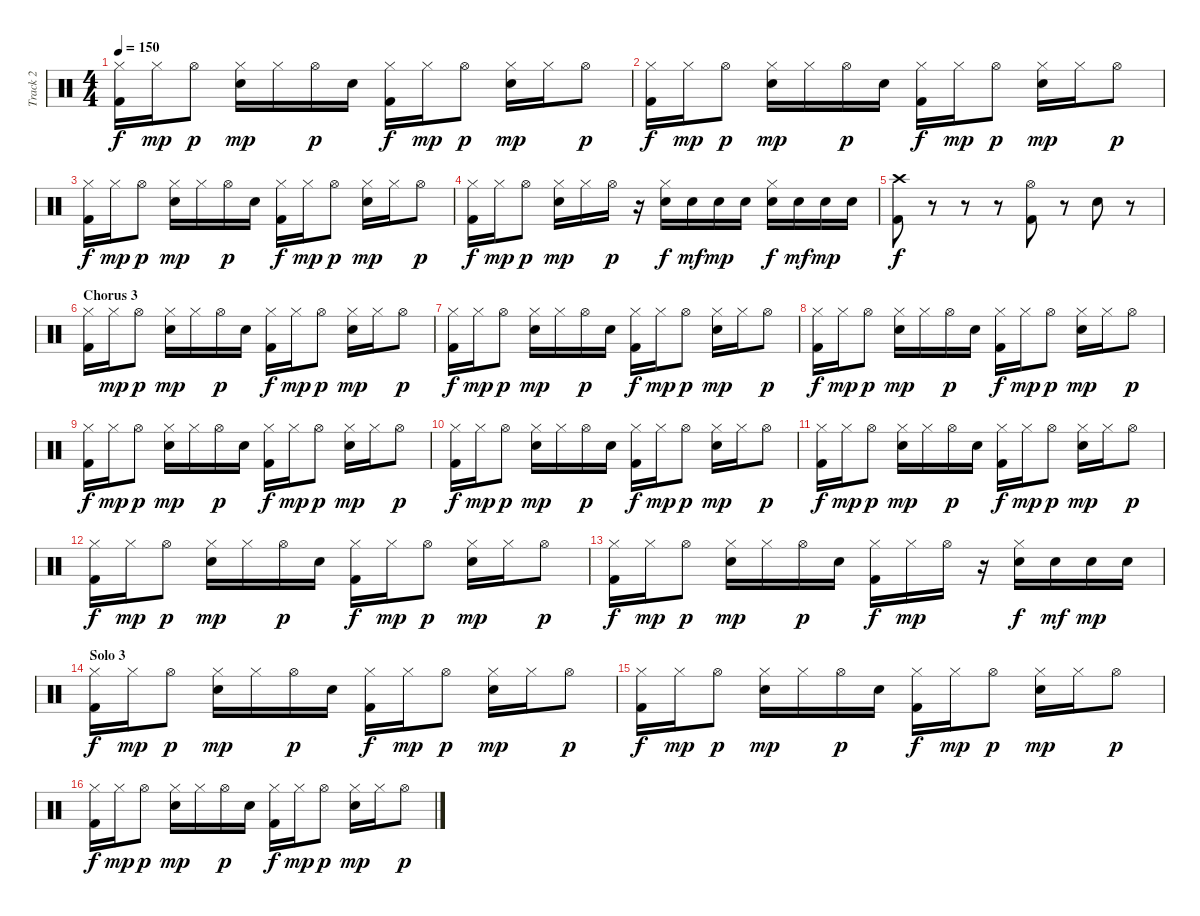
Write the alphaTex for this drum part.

\track ("Track 2" "Track 2") {instrument percussion}
\staff {score}
\articulation defaults
\ts (4 4)
\tempo 150
\clef neutral
\ks c
("Hi-Hat (closed)" "Kick (hit) 2").16{dy f} "Hi-Hat (closed)".16{dy mp} "Hi-Hat (open)".8{dy p} ("Hi-Hat (closed)" "Electric Snare (hit)").16{dy mp} "Hi-Hat (closed)".16 "Hi-Hat (open)".16{dy p} "Electric Snare (hit)".16 ("Hi-Hat (closed)" "Kick (hit) 2").16{dy f} "Hi-Hat (closed)".16{dy mp} "Hi-Hat (open)".8{dy p} ("Hi-Hat (closed)" "Electric Snare (hit)").16{dy mp} "Hi-Hat (closed)".16 "Hi-Hat (open)".8{dy p} |
("Hi-Hat (closed)" "Kick (hit) 2").16{dy f} "Hi-Hat (closed)".16{dy mp} "Hi-Hat (open)".8{dy p} ("Hi-Hat (closed)" "Electric Snare (hit)").16{dy mp} "Hi-Hat (closed)".16 "Hi-Hat (open)".16{dy p} "Electric Snare (hit)".16 ("Hi-Hat (closed)" "Kick (hit) 2").16{dy f} "Hi-Hat (closed)".16{dy mp} "Hi-Hat (open)".8{dy p} ("Hi-Hat (closed)" "Electric Snare (hit)").16{dy mp} "Hi-Hat (closed)".16 "Hi-Hat (open)".8{dy p} |
("Hi-Hat (closed)" "Kick (hit) 2").16{dy f} "Hi-Hat (closed)".16{dy mp} "Hi-Hat (open)".8{dy p} ("Hi-Hat (closed)" "Electric Snare (hit)").16{dy mp} "Hi-Hat (closed)".16 "Hi-Hat (open)".16{dy p} "Electric Snare (hit)".16 ("Hi-Hat (closed)" "Kick (hit) 2").16{dy f} "Hi-Hat (closed)".16{dy mp} "Hi-Hat (open)".8{dy p} ("Hi-Hat (closed)" "Electric Snare (hit)").16{dy mp} "Hi-Hat (closed)".16 "Hi-Hat (open)".8{dy p} |
("Hi-Hat (closed)" "Kick (hit) 2").16{dy f} "Hi-Hat (closed)".16{dy mp} "Hi-Hat (open)".8{dy p} ("Hi-Hat (closed)" "Electric Snare (hit)").16{dy mp} "Hi-Hat (closed)".16 "Hi-Hat (open)".16{dy p} r.16 ("Hi-Hat (closed)" "Electric Snare (hit)").16{dy f} "Electric Snare (hit)".16{dy mf} "Electric Snare (hit)".16{dy mp} "Electric Snare (hit)".16 ("Hi-Hat (closed)" "Electric Snare (hit)").16{dy f} "Electric Snare (hit)".16{dy mf} "Electric Snare (hit)".16{dy mp} "Electric Snare (hit)".16 |
("Crash high (hit)" "Kick (hit) 2").8{dy f} r.8 r.8 r.8 ("Hi-Hat (open)" "Kick (hit) 2").8 r.8 "Electric Snare (hit)".8 r.8 |
\section ("" "Chorus 3")
("Hi-Hat (closed)" "Kick (hit) 2").16 "Hi-Hat (closed)".16{dy mp} "Hi-Hat (open)".8{dy p} ("Hi-Hat (closed)" "Electric Snare (hit)").16{dy mp} "Hi-Hat (closed)".16 "Hi-Hat (open)".16{dy p} "Electric Snare (hit)".16 ("Hi-Hat (closed)" "Kick (hit) 2").16{dy f} "Hi-Hat (closed)".16{dy mp} "Hi-Hat (open)".8{dy p} ("Hi-Hat (closed)" "Electric Snare (hit)").16{dy mp} "Hi-Hat (closed)".16 "Hi-Hat (open)".8{dy p} |
("Hi-Hat (closed)" "Kick (hit) 2").16{dy f} "Hi-Hat (closed)".16{dy mp} "Hi-Hat (open)".8{dy p} ("Hi-Hat (closed)" "Electric Snare (hit)").16{dy mp} "Hi-Hat (closed)".16 "Hi-Hat (open)".16{dy p} "Electric Snare (hit)".16 ("Hi-Hat (closed)" "Kick (hit) 2").16{dy f} "Hi-Hat (closed)".16{dy mp} "Hi-Hat (open)".8{dy p} ("Hi-Hat (closed)" "Electric Snare (hit)").16{dy mp} "Hi-Hat (closed)".16 "Hi-Hat (open)".8{dy p} |
("Hi-Hat (closed)" "Kick (hit) 2").16{dy f} "Hi-Hat (closed)".16{dy mp} "Hi-Hat (open)".8{dy p} ("Hi-Hat (closed)" "Electric Snare (hit)").16{dy mp} "Hi-Hat (closed)".16 "Hi-Hat (open)".16{dy p} "Electric Snare (hit)".16 ("Hi-Hat (closed)" "Kick (hit) 2").16{dy f} "Hi-Hat (closed)".16{dy mp} "Hi-Hat (open)".8{dy p} ("Hi-Hat (closed)" "Electric Snare (hit)").16{dy mp} "Hi-Hat (closed)".16 "Hi-Hat (open)".8{dy p} |
("Hi-Hat (closed)" "Kick (hit) 2").16{dy f} "Hi-Hat (closed)".16{dy mp} "Hi-Hat (open)".8{dy p} ("Hi-Hat (closed)" "Electric Snare (hit)").16{dy mp} "Hi-Hat (closed)".16 "Hi-Hat (open)".16{dy p} "Electric Snare (hit)".16 ("Hi-Hat (closed)" "Kick (hit) 2").16{dy f} "Hi-Hat (closed)".16{dy mp} "Hi-Hat (open)".8{dy p} ("Hi-Hat (closed)" "Electric Snare (hit)").16{dy mp} "Hi-Hat (closed)".16 "Hi-Hat (open)".8{dy p} |
("Hi-Hat (closed)" "Kick (hit) 2").16{dy f} "Hi-Hat (closed)".16{dy mp} "Hi-Hat (open)".8{dy p} ("Hi-Hat (closed)" "Electric Snare (hit)").16{dy mp} "Hi-Hat (closed)".16 "Hi-Hat (open)".16{dy p} "Electric Snare (hit)".16 ("Hi-Hat (closed)" "Kick (hit) 2").16{dy f} "Hi-Hat (closed)".16{dy mp} "Hi-Hat (open)".8{dy p} ("Hi-Hat (closed)" "Electric Snare (hit)").16{dy mp} "Hi-Hat (closed)".16 "Hi-Hat (open)".8{dy p} |
("Hi-Hat (closed)" "Kick (hit) 2").16{dy f} "Hi-Hat (closed)".16{dy mp} "Hi-Hat (open)".8{dy p} ("Hi-Hat (closed)" "Electric Snare (hit)").16{dy mp} "Hi-Hat (closed)".16 "Hi-Hat (open)".16{dy p} "Electric Snare (hit)".16 ("Hi-Hat (closed)" "Kick (hit) 2").16{dy f} "Hi-Hat (closed)".16{dy mp} "Hi-Hat (open)".8{dy p} ("Hi-Hat (closed)" "Electric Snare (hit)").16{dy mp} "Hi-Hat (closed)".16 "Hi-Hat (open)".8{dy p} |
("Hi-Hat (closed)" "Kick (hit) 2").16{dy f} "Hi-Hat (closed)".16{dy mp} "Hi-Hat (open)".8{dy p} ("Hi-Hat (closed)" "Electric Snare (hit)").16{dy mp} "Hi-Hat (closed)".16 "Hi-Hat (open)".16{dy p} "Electric Snare (hit)".16 ("Hi-Hat (closed)" "Kick (hit) 2").16{dy f} "Hi-Hat (closed)".16{dy mp} "Hi-Hat (open)".8{dy p} ("Hi-Hat (closed)" "Electric Snare (hit)").16{dy mp} "Hi-Hat (closed)".16 "Hi-Hat (open)".8{dy p} |
("Hi-Hat (closed)" "Kick (hit) 2").16{dy f} "Hi-Hat (closed)".16{dy mp} "Hi-Hat (open)".8{dy p} ("Hi-Hat (closed)" "Electric Snare (hit)").16{dy mp} "Hi-Hat (closed)".16 "Hi-Hat (open)".16{dy p} "Electric Snare (hit)".16 ("Hi-Hat (closed)" "Kick (hit) 2").16{dy f} "Hi-Hat (closed)".16{dy mp} "Hi-Hat (open)".16 r.16 ("Hi-Hat (closed)" "Electric Snare (hit)").16{dy f} "Electric Snare (hit)".16{dy mf} "Electric Snare (hit)".16{dy mp} "Electric Snare (hit)".16 |
\section ("" "Solo 3")
("Hi-Hat (closed)" "Kick (hit) 2").16{dy f} "Hi-Hat (closed)".16{dy mp} "Hi-Hat (open)".8{dy p} ("Hi-Hat (closed)" "Electric Snare (hit)").16{dy mp} "Hi-Hat (closed)".16 "Hi-Hat (open)".16{dy p} "Electric Snare (hit)".16 ("Hi-Hat (closed)" "Kick (hit) 2").16{dy f} "Hi-Hat (closed)".16{dy mp} "Hi-Hat (open)".8{dy p} ("Hi-Hat (closed)" "Electric Snare (hit)").16{dy mp} "Hi-Hat (closed)".16 "Hi-Hat (open)".8{dy p} |
("Hi-Hat (closed)" "Kick (hit) 2").16{dy f} "Hi-Hat (closed)".16{dy mp} "Hi-Hat (open)".8{dy p} ("Hi-Hat (closed)" "Electric Snare (hit)").16{dy mp} "Hi-Hat (closed)".16 "Hi-Hat (open)".16{dy p} "Electric Snare (hit)".16 ("Hi-Hat (closed)" "Kick (hit) 2").16{dy f} "Hi-Hat (closed)".16{dy mp} "Hi-Hat (open)".8{dy p} ("Hi-Hat (closed)" "Electric Snare (hit)").16{dy mp} "Hi-Hat (closed)".16 "Hi-Hat (open)".8{dy p} |
("Hi-Hat (closed)" "Kick (hit) 2").16{dy f} "Hi-Hat (closed)".16{dy mp} "Hi-Hat (open)".8{dy p} ("Hi-Hat (closed)" "Electric Snare (hit)").16{dy mp} "Hi-Hat (closed)".16 "Hi-Hat (open)".16{dy p} "Electric Snare (hit)".16 ("Hi-Hat (closed)" "Kick (hit) 2").16{dy f} "Hi-Hat (closed)".16{dy mp} "Hi-Hat (open)".8{dy p} ("Hi-Hat (closed)" "Electric Snare (hit)").16{dy mp} "Hi-Hat (closed)".16 "Hi-Hat (open)".8{dy p}
